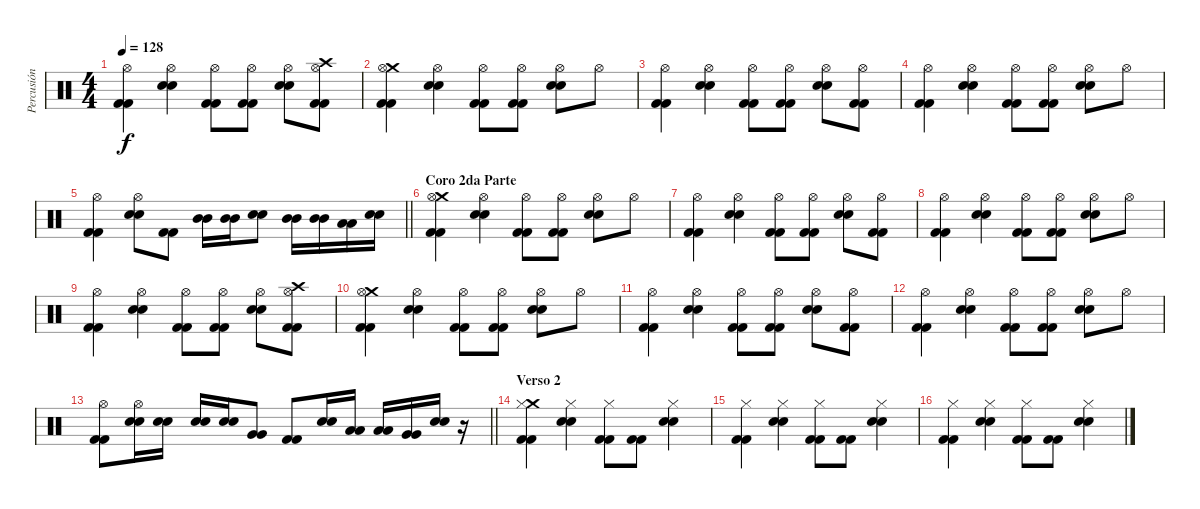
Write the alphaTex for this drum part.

\track ("Percusión" "Percusión") {instrument percussion}
\staff {score}
\articulation defaults
\ts (4 4)
\tempo 128
\clef neutral
\ks c
("Hi-Hat (open)" "Kick (hit) 2" "Kick (hit) 2").4{dy f} ("Hi-Hat (open)" "Electric Snare (hit)" "Electric Snare (hit)").4 ("Hi-Hat (open)" "Kick (hit) 2" "Kick (hit) 2").8 ("Hi-Hat (open)" "Kick (hit) 2" "Kick (hit) 2").8 ("Hi-Hat (open)" "Electric Snare (hit)" "Electric Snare (hit)").8 ("Crash high (hit)" "Hi-Hat (open)" "Kick (hit) 2" "Kick (hit) 2").8 |
("Crash medium (hit)" "Hi-Hat (open)" "Kick (hit) 2" "Kick (hit) 2").4 ("Hi-Hat (open)" "Electric Snare (hit)" "Electric Snare (hit)").4 ("Hi-Hat (open)" "Kick (hit) 2" "Kick (hit) 2").8 ("Hi-Hat (open)" "Kick (hit) 2" "Kick (hit) 2").8 ("Hi-Hat (open)" "Electric Snare (hit)" "Electric Snare (hit)").8 "Hi-Hat (open)".8 |
("Hi-Hat (open)" "Kick (hit) 2" "Kick (hit) 2").4 ("Hi-Hat (open)" "Electric Snare (hit)" "Electric Snare (hit)").4 ("Hi-Hat (open)" "Kick (hit) 2" "Kick (hit) 2").8 ("Hi-Hat (open)" "Kick (hit) 2" "Kick (hit) 2").8 ("Hi-Hat (open)" "Electric Snare (hit)" "Electric Snare (hit)").8 ("Hi-Hat (open)" "Kick (hit) 2" "Kick (hit) 2").8 |
("Hi-Hat (open)" "Kick (hit) 2" "Kick (hit) 2").4 ("Hi-Hat (open)" "Electric Snare (hit)" "Electric Snare (hit)").4 ("Hi-Hat (open)" "Kick (hit) 2" "Kick (hit) 2").8 ("Hi-Hat (open)" "Kick (hit) 2" "Kick (hit) 2").8 ("Hi-Hat (open)" "Electric Snare (hit)" "Electric Snare (hit)").8 "Hi-Hat (open)".8 |
\barLineRight lightlight
("Hi-Hat (open)" "Kick (hit) 2" "Kick (hit) 2").4 ("Hi-Hat (open)" "Electric Snare (hit)" "Electric Snare (hit)").8 ("Kick (hit) 2" "Kick (hit) 2").8 ("Mid Tom (hit)" "Mid Tom (hit)").16 ("Mid Tom (hit)" "Mid Tom (hit)").16 ("Electric Snare (hit)" "Electric Snare (hit)").8 ("Mid Tom (hit)" "Mid Tom (hit)").16 ("Mid Tom (hit)" "Mid Tom (hit)").16 ("Low Tom (hit)" "Low Tom (hit)").16 ("Electric Snare (hit)" "Electric Snare (hit)").16 |
\section ("" "Coro 2da Parte")
("Crash medium (hit)" "Hi-Hat (open)" "Kick (hit) 2" "Kick (hit) 2").4 ("Hi-Hat (open)" "Electric Snare (hit)" "Electric Snare (hit)").4 ("Hi-Hat (open)" "Kick (hit) 2" "Kick (hit) 2").8 ("Hi-Hat (open)" "Kick (hit) 2" "Kick (hit) 2").8 ("Hi-Hat (open)" "Electric Snare (hit)" "Electric Snare (hit)").8 "Hi-Hat (open)".8 |
("Hi-Hat (open)" "Kick (hit) 2" "Kick (hit) 2").4 ("Hi-Hat (open)" "Electric Snare (hit)" "Electric Snare (hit)").4 ("Hi-Hat (open)" "Kick (hit) 2" "Kick (hit) 2").8 ("Hi-Hat (open)" "Kick (hit) 2" "Kick (hit) 2").8 ("Hi-Hat (open)" "Electric Snare (hit)" "Electric Snare (hit)").8 ("Hi-Hat (open)" "Kick (hit) 2" "Kick (hit) 2").8 |
("Hi-Hat (open)" "Kick (hit) 2" "Kick (hit) 2").4 ("Hi-Hat (open)" "Electric Snare (hit)" "Electric Snare (hit)").4 ("Hi-Hat (open)" "Kick (hit) 2" "Kick (hit) 2").8 ("Hi-Hat (open)" "Kick (hit) 2" "Kick (hit) 2").8 ("Hi-Hat (open)" "Electric Snare (hit)" "Electric Snare (hit)").8 "Hi-Hat (open)".8 |
("Hi-Hat (open)" "Kick (hit) 2" "Kick (hit) 2").4 ("Hi-Hat (open)" "Electric Snare (hit)" "Electric Snare (hit)").4 ("Hi-Hat (open)" "Kick (hit) 2" "Kick (hit) 2").8 ("Hi-Hat (open)" "Kick (hit) 2" "Kick (hit) 2").8 ("Hi-Hat (open)" "Electric Snare (hit)" "Electric Snare (hit)").8 ("Crash high (hit)" "Hi-Hat (open)" "Kick (hit) 2" "Kick (hit) 2").8 |
("Crash medium (hit)" "Hi-Hat (open)" "Kick (hit) 2" "Kick (hit) 2").4 ("Hi-Hat (open)" "Electric Snare (hit)" "Electric Snare (hit)").4 ("Hi-Hat (open)" "Kick (hit) 2" "Kick (hit) 2").8 ("Hi-Hat (open)" "Kick (hit) 2" "Kick (hit) 2").8 ("Hi-Hat (open)" "Electric Snare (hit)" "Electric Snare (hit)").8 "Hi-Hat (open)".8 |
("Hi-Hat (open)" "Kick (hit) 2" "Kick (hit) 2").4 ("Hi-Hat (open)" "Electric Snare (hit)" "Electric Snare (hit)").4 ("Hi-Hat (open)" "Kick (hit) 2" "Kick (hit) 2").8 ("Hi-Hat (open)" "Kick (hit) 2" "Kick (hit) 2").8 ("Hi-Hat (open)" "Electric Snare (hit)" "Electric Snare (hit)").8 ("Hi-Hat (open)" "Kick (hit) 2" "Kick (hit) 2").8 |
("Hi-Hat (open)" "Kick (hit) 2" "Kick (hit) 2").4 ("Hi-Hat (open)" "Electric Snare (hit)" "Electric Snare (hit)").4 ("Hi-Hat (open)" "Kick (hit) 2" "Kick (hit) 2").8 ("Hi-Hat (open)" "Kick (hit) 2" "Kick (hit) 2").8 ("Hi-Hat (open)" "Electric Snare (hit)" "Electric Snare (hit)").8 "Hi-Hat (open)".8 |
\barLineRight lightlight
("Hi-Hat (open)" "Kick (hit) 2" "Kick (hit) 2").8 ("Hi-Hat (open)" "Electric Snare (hit)" "Electric Snare (hit)").16 ("Electric Snare (hit)" "Electric Snare (hit)").16 ("Electric Snare (hit)" "Electric Snare (hit)").16 ("Electric Snare (hit)" "Electric Snare (hit)").16 ("Very Low Tom (hit)" "Very Low Tom (hit)").8 ("Kick (hit) 2" "Kick (hit) 2").8 ("Electric Snare (hit)" "Electric Snare (hit)").16 ("Low Tom (hit)" "Low Tom (hit)").16 ("Low Tom (hit)" "Low Tom (hit)").16 ("Very Low Tom (hit)" "Very Low Tom (hit)").16 ("Electric Snare (hit)" "Electric Snare (hit)").16 r.16 |
\section ("" "Verso 2")
("Crash medium (hit)" "Hi-Hat (closed)" "Kick (hit) 2" "Kick (hit) 2").4 ("Hi-Hat (closed)" "Electric Snare (hit)" "Electric Snare (hit)").4 ("Hi-Hat (closed)" "Kick (hit) 2" "Kick (hit) 2").8 ("Kick (hit) 2" "Kick (hit) 2").8 ("Hi-Hat (closed)" "Electric Snare (hit)" "Electric Snare (hit)").4 |
("Hi-Hat (closed)" "Kick (hit) 2" "Kick (hit) 2").4 ("Hi-Hat (closed)" "Electric Snare (hit)" "Electric Snare (hit)").4 ("Hi-Hat (closed)" "Kick (hit) 2" "Kick (hit) 2").8 ("Kick (hit) 2" "Kick (hit) 2").8 ("Hi-Hat (closed)" "Electric Snare (hit)" "Electric Snare (hit)").4 |
("Hi-Hat (closed)" "Kick (hit) 2" "Kick (hit) 2").4 ("Hi-Hat (closed)" "Electric Snare (hit)" "Electric Snare (hit)").4 ("Hi-Hat (closed)" "Kick (hit) 2" "Kick (hit) 2").8 ("Kick (hit) 2" "Kick (hit) 2").8 ("Hi-Hat (closed)" "Electric Snare (hit)" "Electric Snare (hit)").4
